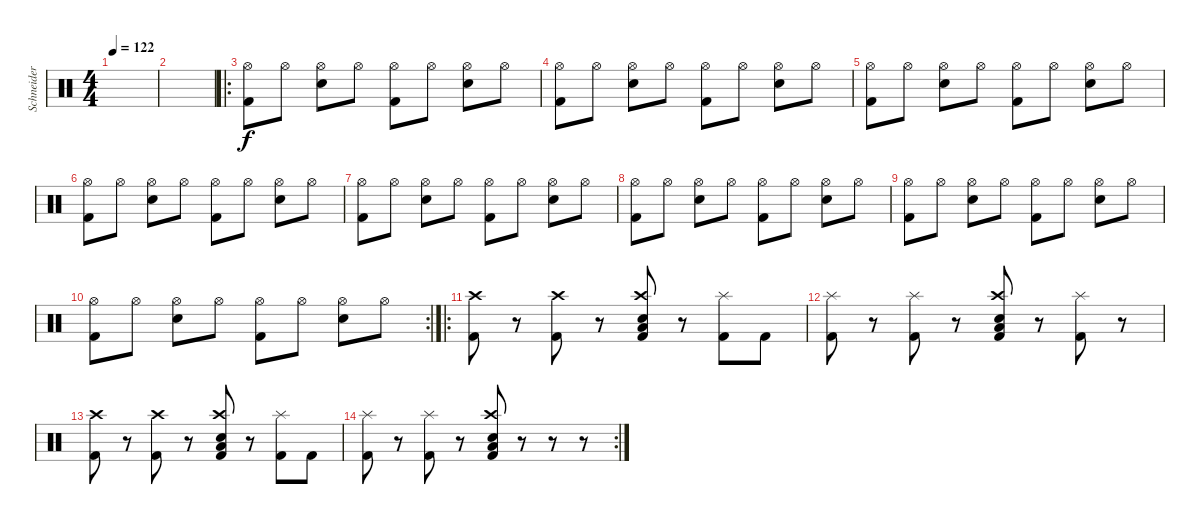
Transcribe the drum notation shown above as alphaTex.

\track ("Schneider" "Schneider") {instrument percussion}
\staff {score}
\articulation defaults
\ts (4 4)
\tempo 122
\clef neutral
\ks c
|
|
\ro
("Hi-Hat (open)" "Kick (hit) 2").8 "Hi-Hat (open)".8 ("Hi-Hat (open)" "Snare (hit) 2").8 "Hi-Hat (open)".8 ("Hi-Hat (open)" "Kick (hit) 2").8 "Hi-Hat (open)".8 ("Hi-Hat (open)" "Snare (hit) 2").8 "Hi-Hat (open)".8 |
("Hi-Hat (open)" "Kick (hit) 2").8 "Hi-Hat (open)".8 ("Hi-Hat (open)" "Snare (hit) 2").8 "Hi-Hat (open)".8 ("Hi-Hat (open)" "Kick (hit) 2").8 "Hi-Hat (open)".8 ("Hi-Hat (open)" "Snare (hit) 2").8 "Hi-Hat (open)".8 |
("Hi-Hat (open)" "Kick (hit) 2").8 "Hi-Hat (open)".8 ("Hi-Hat (open)" "Snare (hit) 2").8 "Hi-Hat (open)".8 ("Hi-Hat (open)" "Kick (hit) 2").8 "Hi-Hat (open)".8 ("Hi-Hat (open)" "Snare (hit) 2").8 "Hi-Hat (open)".8 |
("Hi-Hat (open)" "Kick (hit) 2").8 "Hi-Hat (open)".8 ("Hi-Hat (open)" "Snare (hit) 2").8 "Hi-Hat (open)".8 ("Hi-Hat (open)" "Kick (hit) 2").8 "Hi-Hat (open)".8 ("Hi-Hat (open)" "Snare (hit) 2").8 "Hi-Hat (open)".8 |
("Hi-Hat (open)" "Kick (hit) 2").8 "Hi-Hat (open)".8 ("Hi-Hat (open)" "Snare (hit) 2").8 "Hi-Hat (open)".8 ("Hi-Hat (open)" "Kick (hit) 2").8 "Hi-Hat (open)".8 ("Hi-Hat (open)" "Snare (hit) 2").8 "Hi-Hat (open)".8 |
("Hi-Hat (open)" "Kick (hit) 2").8 "Hi-Hat (open)".8 ("Hi-Hat (open)" "Snare (hit) 2").8 "Hi-Hat (open)".8 ("Hi-Hat (open)" "Kick (hit) 2").8 "Hi-Hat (open)".8 ("Hi-Hat (open)" "Snare (hit) 2").8 "Hi-Hat (open)".8 |
("Hi-Hat (open)" "Kick (hit) 2").8 "Hi-Hat (open)".8 ("Hi-Hat (open)" "Snare (hit) 2").8 "Hi-Hat (open)".8 ("Hi-Hat (open)" "Kick (hit) 2").8 "Hi-Hat (open)".8 ("Hi-Hat (open)" "Snare (hit) 2").8 "Hi-Hat (open)".8 |
\rc 2
("Hi-Hat (open)" "Kick (hit) 2").8 "Hi-Hat (open)".8 ("Hi-Hat (open)" "Snare (hit) 2").8 "Hi-Hat (open)".8 ("Hi-Hat (open)" "Kick (hit) 2").8 "Hi-Hat (open)".8 ("Hi-Hat (open)" "Snare (hit) 2").8 "Hi-Hat (open)".8 |
\ro
("Crash high (hit)" "Kick (hit) 2").8 r.8 ("Crash high (hit)" "Kick (hit) 2").8 r.8 ("Crash high (hit)" "Low Floor Tom (hit)" "Electric Snare (hit)" "Kick (hit) 2").8 r.8 ("Splash (hit)" "Kick (hit) 2").8 "Kick (hit) 2".8 |
("Splash (hit)" "Kick (hit) 2").8 r.8 ("Splash (hit)" "Kick (hit) 2").8 r.8 ("Crash high (hit)" "Low Floor Tom (hit)" "Electric Snare (hit)" "Kick (hit) 2").8 r.8 ("Splash (hit)" "Kick (hit) 2").8 r.8 |
("Crash high (hit)" "Kick (hit) 2").8 r.8 ("Crash high (hit)" "Kick (hit) 2").8 r.8 ("Crash high (hit)" "Low Floor Tom (hit)" "Electric Snare (hit)" "Kick (hit) 2").8 r.8 ("Splash (hit)" "Kick (hit) 2").8 "Kick (hit) 2".8 |
\rc 2
("Splash (hit)" "Kick (hit) 2").8 r.8 ("Splash (hit)" "Kick (hit) 2").8 r.8 ("Crash high (hit)" "Low Floor Tom (hit)" "Electric Snare (hit)" "Kick (hit) 2").8 r.8 r.8 r.8
